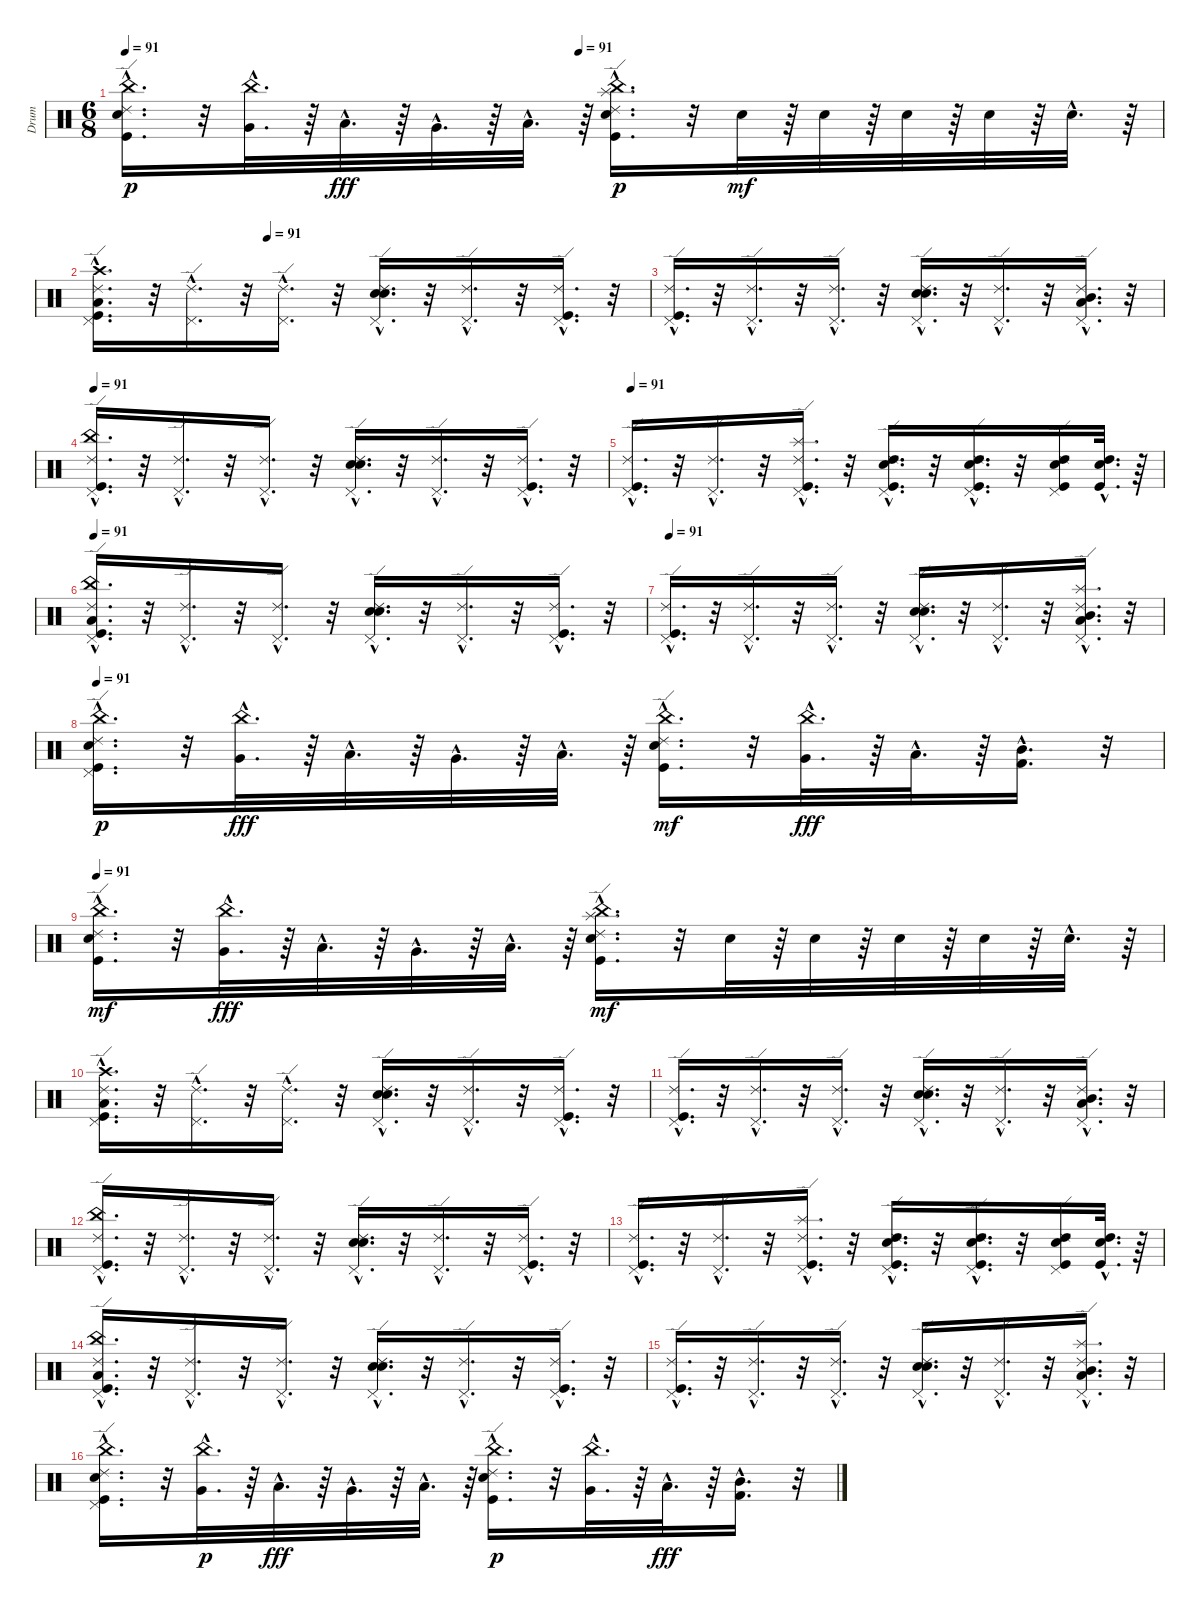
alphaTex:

\track ("Drum" "Drum") {instrument percussion}
\staff {score}
\articulation defaults
\ts (6 8)
\tempo 91
\tempo (91 0.4375)
\clef neutral
\ks c
("Kick (hit)"{hac} "Ride (edge) 2"{hac} "Snare (hit) 2"{hac} "China (hit)"{hac}).16{d dy p} r.32 ("Very Low Tom (hit)"{hac} "China (hit)"{hac}).32{d} r.64 "Low Floor Tom (hit)"{hac}.32{d dy fff} r.64 "Very Low Tom (hit)"{hac}.32{d} r.64 "Low Floor Tom (hit)"{hac}.32{d} r.64 ("Kick (hit)"{hac} "Snare (hit) 2"{hac} "Ride (edge) 2"{hac} "China (hit)"{hac} "Splash (hit)"{hac}).16{d dy p} r.32 "Snare (hit) 2".32{dy mf} r.64 "Snare (hit) 2".32 r.64 "Snare (hit) 2".32 r.64 "Snare (hit) 2".32 r.64 "Snare (hit) 2"{hac}.32{d} r.64 |
\tempo (91 0.3125)
("Low Floor Tom (hit)"{hac} "Kick (hit)"{hac} "Pedal Hi-Hat (hit)"{hac} "Ride (edge) 2"{hac} "Crash high (hit)"{hac}).16{d} r.32 ("Pedal Hi-Hat (hit)"{hac} "Ride (edge) 2"{hac}).16{d} r.32 ("Pedal Hi-Hat (hit)"{hac} "Ride (edge) 2"{hac}).16{d} r.32 ("Pedal Hi-Hat (hit)"{hac} "Snare (hit) 2"{hac} "Ride (edge) 2"{hac} "Hand Clap (hit)"{hac}).16{d} r.32 ("Pedal Hi-Hat (hit)"{hac} "Ride (edge) 2"{hac}).16{d} r.32 ("Kick (hit)"{hac} "Pedal Hi-Hat (hit)"{hac} "Ride (edge) 2"{hac}).16{d} r.32 |
("Ride (edge) 2"{hac} "Pedal Hi-Hat (hit)"{hac} "Kick (hit)"{hac}).16{d} r.32 ("Ride (edge) 2"{hac} "Pedal Hi-Hat (hit)"{hac}).16{d} r.32 ("Ride (edge) 2"{hac} "Pedal Hi-Hat (hit)"{hac}).16{d} r.32 ("Hand Clap (hit)"{hac} "Ride (edge) 2"{hac} "Snare (hit) 2"{hac} "Pedal Hi-Hat (hit)"{hac}).16{d} r.32 ("Ride (edge) 2"{hac} "Pedal Hi-Hat (hit)"{hac}).16{d} r.32 ("Low Floor Tom (hit)"{hac} "Mid Tom (hit)"{hac} "Ride (edge) 2"{hac} "Pedal Hi-Hat (hit)"{hac}).16{d} r.32 |
\tempo 91
("China (hit)"{hac} "Ride (edge) 2"{hac} "Pedal Hi-Hat (hit)"{hac} "Kick (hit)"{hac}).16{d} r.32 ("Ride (edge) 2"{hac} "Pedal Hi-Hat (hit)"{hac}).16{d} r.32 ("Ride (edge) 2"{hac} "Pedal Hi-Hat (hit)"{hac}).16{d} r.32 ("Hand Clap (hit)"{hac} "Ride (edge) 2"{hac} "Snare (hit) 2"{hac} "Pedal Hi-Hat (hit)"{hac}).16{d} r.32 ("Ride (edge) 2"{hac} "Pedal Hi-Hat (hit)"{hac}).16{d} r.32 ("Kick (hit)"{hac} "Ride (edge) 2"{hac} "Pedal Hi-Hat (hit)"{hac}).16{d} r.32 |
\tempo 91
("Ride (edge) 2"{hac} "Pedal Hi-Hat (hit)"{hac} "Kick (hit)"{hac}).16{d} r.32 ("Ride (edge) 2"{hac} "Pedal Hi-Hat (hit)"{hac}).16{d} r.32 ("Pedal Hi-Hat (hit)"{hac} "Splash (hit)"{hac} "Ride (edge) 2"{hac} "Kick (hit)"{hac}).16{d} r.32 ("High Tom (hit)"{hac} "Pedal Hi-Hat (hit)"{hac} "Kick (hit)"{hac} "Snare (hit) 2"{hac} "Ride (edge) 2"{hac}).16{d} r.32 ("Snare (hit) 2"{hac} "Ride (edge) 2"{hac} "High Tom (hit)"{hac} "Pedal Hi-Hat (hit)"{hac} "Kick (hit)"{hac}).16{d} r.32 ("High Tom (hit)" "Snare (hit) 2" "Pedal Hi-Hat (hit)" "Kick (hit)" "Ride (edge) 2").16 ("Snare (hit) 2"{hac} "Kick (hit)"{hac} "High Tom (hit)"{hac}).32{d} r.64 |
\tempo 91
("Low Floor Tom (hit)"{hac} "Kick (hit)"{hac} "Pedal Hi-Hat (hit)"{hac} "China (hit)"{hac} "Ride (edge) 2"{hac}).16{d} r.32 ("Pedal Hi-Hat (hit)"{hac} "Ride (edge) 2"{hac}).16{d} r.32 ("Ride (edge) 2"{hac} "Pedal Hi-Hat (hit)"{hac}).16{d} r.32 ("Snare (hit) 2"{hac} "Ride (edge) 2"{hac} "Hand Clap (hit)"{hac} "Pedal Hi-Hat (hit)"{hac}).16{d} r.32 ("Ride (edge) 2"{hac} "Pedal Hi-Hat (hit)"{hac}).16{d} r.32 ("Kick (hit)"{hac} "Pedal Hi-Hat (hit)"{hac} "Ride (edge) 2"{hac}).16{d} r.32 |
\tempo 91
("Kick (hit)"{hac} "Pedal Hi-Hat (hit)"{hac} "Ride (edge) 2"{hac}).16{d} r.32 ("Pedal Hi-Hat (hit)"{hac} "Ride (edge) 2"{hac}).16{d} r.32 ("Pedal Hi-Hat (hit)"{hac} "Ride (edge) 2"{hac}).16{d} r.32 ("Pedal Hi-Hat (hit)"{hac} "Snare (hit) 2"{hac} "Ride (edge) 2"{hac} "Hand Clap (hit)"{hac}).16{d} r.32 ("Pedal Hi-Hat (hit)"{hac} "Ride (edge) 2"{hac}).16{d} r.32 ("Splash (hit)"{hac} "Pedal Hi-Hat (hit)"{hac} "Ride (edge) 2"{hac} "Mid Tom (hit)"{hac} "Low Floor Tom (hit)"{hac}).16{d} r.32 |
\tempo 91
("Snare (hit) 2"{hac} "Kick (hit)"{hac} "Ride (edge) 2"{hac} "Pedal Hi-Hat (hit)"{hac} "China (hit)"{hac}).16{d dy p} r.32 ("China (hit)"{hac} "Very Low Tom (hit)"{hac}).32{d dy fff} r.64 "Low Floor Tom (hit)"{hac}.32{d} r.64 "Very Low Tom (hit)"{hac}.32{d} r.64 "Low Floor Tom (hit)"{hac}.32{d} r.64 ("China (hit)"{hac} "Snare (hit) 2"{hac} "Ride (edge) 2"{hac} "Kick (hit)"{hac}).16{d dy mf} r.32 ("China (hit)"{hac} "Very Low Tom (hit)"{hac}).32{d dy fff} r.64 "Low Floor Tom (hit)"{hac}.32{d} r.64 ("Kick (hit) 2"{hac} "Mid Tom (hit)"{hac}).16{d} r.32 |
\tempo 91
("China (hit)"{hac} "Snare (hit) 2"{hac} "Ride (edge) 2"{hac} "Kick (hit)"{hac}).16{d dy mf} r.32 ("China (hit)"{hac} "Very Low Tom (hit)"{hac}).32{d dy fff} r.64 "Low Floor Tom (hit)"{hac}.32{d} r.64 "Very Low Tom (hit)"{hac}.32{d} r.64 "Low Floor Tom (hit)"{hac}.32{d} r.64 ("Splash (hit)"{hac} "China (hit)"{hac} "Ride (edge) 2"{hac} "Snare (hit) 2"{hac} "Kick (hit)"{hac}).16{d dy mf} r.32 "Snare (hit) 2".32 r.64 "Snare (hit) 2".32 r.64 "Snare (hit) 2".32 r.64 "Snare (hit) 2".32 r.64 "Snare (hit) 2"{hac}.32{d} r.64 |
("Crash high (hit)"{hac} "Ride (edge) 2"{hac} "Pedal Hi-Hat (hit)"{hac} "Kick (hit)"{hac} "Low Floor Tom (hit)"{hac}).16{d} r.32 ("Ride (edge) 2"{hac} "Pedal Hi-Hat (hit)"{hac}).16{d} r.32 ("Ride (edge) 2"{hac} "Pedal Hi-Hat (hit)"{hac}).16{d} r.32 ("Hand Clap (hit)"{hac} "Ride (edge) 2"{hac} "Snare (hit) 2"{hac} "Pedal Hi-Hat (hit)"{hac}).16{d} r.32 ("Ride (edge) 2"{hac} "Pedal Hi-Hat (hit)"{hac}).16{d} r.32 ("Ride (edge) 2"{hac} "Pedal Hi-Hat (hit)"{hac} "Kick (hit)"{hac}).16{d} r.32 |
("Kick (hit)"{hac} "Pedal Hi-Hat (hit)"{hac} "Ride (edge) 2"{hac}).16{d} r.32 ("Pedal Hi-Hat (hit)"{hac} "Ride (edge) 2"{hac}).16{d} r.32 ("Pedal Hi-Hat (hit)"{hac} "Ride (edge) 2"{hac}).16{d} r.32 ("Pedal Hi-Hat (hit)"{hac} "Snare (hit) 2"{hac} "Ride (edge) 2"{hac} "Hand Clap (hit)"{hac}).16{d} r.32 ("Pedal Hi-Hat (hit)"{hac} "Ride (edge) 2"{hac}).16{d} r.32 ("Pedal Hi-Hat (hit)"{hac} "Ride (edge) 2"{hac} "Mid Tom (hit)"{hac} "Low Floor Tom (hit)"{hac}).16{d} r.32 |
("Kick (hit)"{hac} "Pedal Hi-Hat (hit)"{hac} "Ride (edge) 2"{hac} "China (hit)"{hac}).16{d} r.32 ("Pedal Hi-Hat (hit)"{hac} "Ride (edge) 2"{hac}).16{d} r.32 ("Pedal Hi-Hat (hit)"{hac} "Ride (edge) 2"{hac}).16{d} r.32 ("Pedal Hi-Hat (hit)"{hac} "Snare (hit) 2"{hac} "Ride (edge) 2"{hac} "Hand Clap (hit)"{hac}).16{d} r.32 ("Pedal Hi-Hat (hit)"{hac} "Ride (edge) 2"{hac}).16{d} r.32 ("Pedal Hi-Hat (hit)"{hac} "Ride (edge) 2"{hac} "Kick (hit)"{hac}).16{d} r.32 |
("Kick (hit)"{hac} "Pedal Hi-Hat (hit)"{hac} "Ride (edge) 2"{hac}).16{d} r.32 ("Pedal Hi-Hat (hit)"{hac} "Ride (edge) 2"{hac}).16{d} r.32 ("Kick (hit)"{hac} "Ride (edge) 2"{hac} "Splash (hit)"{hac} "Pedal Hi-Hat (hit)"{hac}).16{d} r.32 ("Ride (edge) 2"{hac} "Snare (hit) 2"{hac} "Kick (hit)"{hac} "Pedal Hi-Hat (hit)"{hac} "High Tom (hit)"{hac}).16{d} r.32 ("Kick (hit)"{hac} "Pedal Hi-Hat (hit)"{hac} "High Tom (hit)"{hac} "Ride (edge) 2"{hac} "Snare (hit) 2"{hac}).16{d} r.32 ("Ride (edge) 2" "Kick (hit)" "Pedal Hi-Hat (hit)" "Snare (hit) 2" "High Tom (hit)").16 ("High Tom (hit)"{hac} "Kick (hit)"{hac} "Snare (hit) 2"{hac}).32{d} r.64 |
("Ride (edge) 2"{hac} "China (hit)"{hac} "Pedal Hi-Hat (hit)"{hac} "Kick (hit)"{hac} "Low Floor Tom (hit)"{hac}).16{d} r.32 ("Ride (edge) 2"{hac} "Pedal Hi-Hat (hit)"{hac}).16{d} r.32 ("Pedal Hi-Hat (hit)"{hac} "Ride (edge) 2"{hac}).16{d} r.32 ("Pedal Hi-Hat (hit)"{hac} "Hand Clap (hit)"{hac} "Ride (edge) 2"{hac} "Snare (hit) 2"{hac}).16{d} r.32 ("Pedal Hi-Hat (hit)"{hac} "Ride (edge) 2"{hac}).16{d} r.32 ("Ride (edge) 2"{hac} "Pedal Hi-Hat (hit)"{hac} "Kick (hit)"{hac}).16{d} r.32 |
("Ride (edge) 2"{hac} "Pedal Hi-Hat (hit)"{hac} "Kick (hit)"{hac}).16{d} r.32 ("Ride (edge) 2"{hac} "Pedal Hi-Hat (hit)"{hac}).16{d} r.32 ("Ride (edge) 2"{hac} "Pedal Hi-Hat (hit)"{hac}).16{d} r.32 ("Hand Clap (hit)"{hac} "Ride (edge) 2"{hac} "Snare (hit) 2"{hac} "Pedal Hi-Hat (hit)"{hac}).16{d} r.32 ("Ride (edge) 2"{hac} "Pedal Hi-Hat (hit)"{hac}).16{d} r.32 ("Low Floor Tom (hit)"{hac} "Mid Tom (hit)"{hac} "Ride (edge) 2"{hac} "Pedal Hi-Hat (hit)"{hac} "Splash (hit)"{hac}).16{d} r.32 |
("China (hit)"{hac} "Pedal Hi-Hat (hit)"{hac} "Ride (edge) 2"{hac} "Kick (hit)"{hac} "Snare (hit) 2"{hac}).16{d} r.32 ("Very Low Tom (hit)"{hac} "China (hit)"{hac}).32{d dy p} r.64 "Low Floor Tom (hit)"{hac}.32{d dy fff} r.64 "Very Low Tom (hit)"{hac}.32{d} r.64 "Low Floor Tom (hit)"{hac}.32{d} r.64 ("Kick (hit)"{hac} "Ride (edge) 2"{hac} "Snare (hit) 2"{hac} "China (hit)"{hac}).16{d dy p} r.32 ("Very Low Tom (hit)"{hac} "China (hit)"{hac}).32{d} r.64 "Low Floor Tom (hit)"{hac}.32{d dy fff} r.64 ("Mid Tom (hit)"{hac} "Kick (hit) 2"{hac}).16{d} r.32
